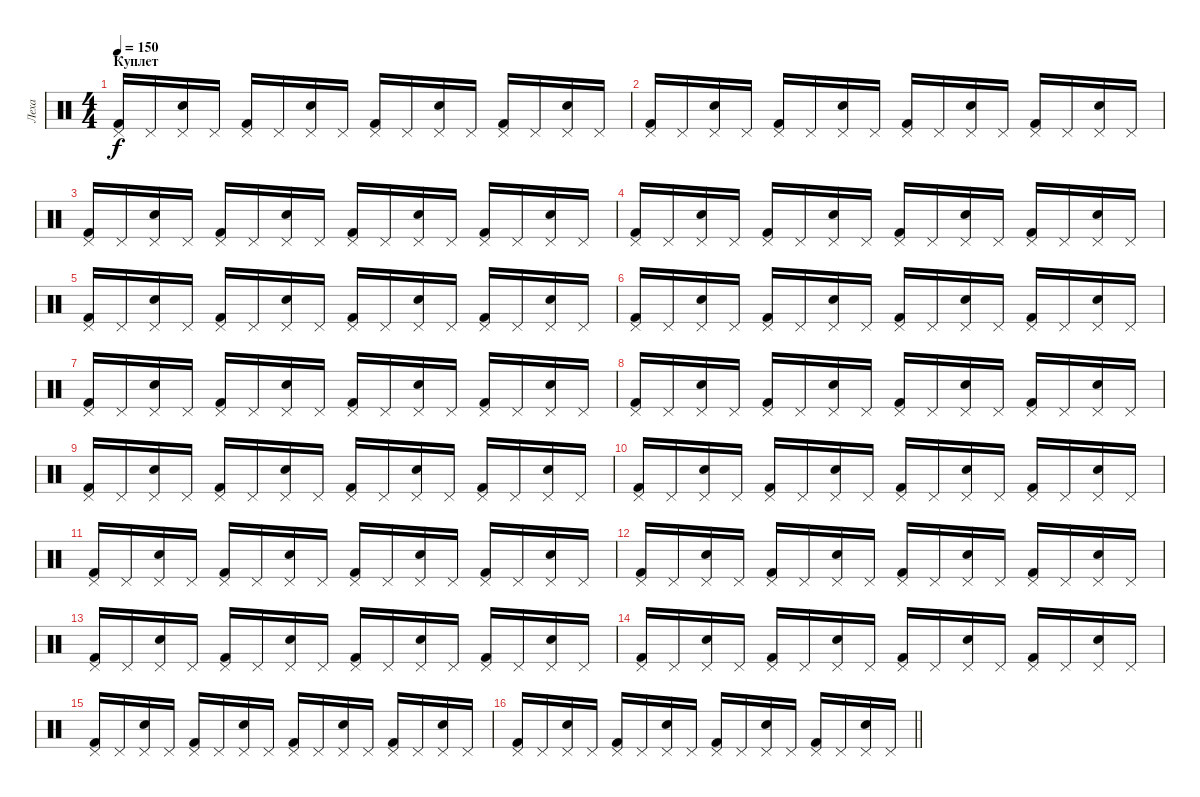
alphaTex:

\track ("Леха" "Леха") {instrument percussion}
\staff {score}
\articulation defaults
\ts (4 4)
\section ("" "Куплет")
\tempo 150
\clef neutral
\ks c
("Pedal Hi-Hat (hit)" "Kick (hit) 2").16{dy f} "Pedal Hi-Hat (hit)".16 ("Pedal Hi-Hat (hit)" "Snare (hit) 2").16 "Pedal Hi-Hat (hit)".16 ("Pedal Hi-Hat (hit)" "Kick (hit) 2").16 "Pedal Hi-Hat (hit)".16 ("Pedal Hi-Hat (hit)" "Snare (hit) 2").16 "Pedal Hi-Hat (hit)".16 ("Pedal Hi-Hat (hit)" "Kick (hit) 2").16 "Pedal Hi-Hat (hit)".16 ("Pedal Hi-Hat (hit)" "Snare (hit) 2").16 "Pedal Hi-Hat (hit)".16 ("Pedal Hi-Hat (hit)" "Kick (hit) 2").16 "Pedal Hi-Hat (hit)".16 ("Pedal Hi-Hat (hit)" "Snare (hit) 2").16 "Pedal Hi-Hat (hit)".16 |
("Pedal Hi-Hat (hit)" "Kick (hit) 2").16 "Pedal Hi-Hat (hit)".16 ("Pedal Hi-Hat (hit)" "Snare (hit) 2").16 "Pedal Hi-Hat (hit)".16 ("Pedal Hi-Hat (hit)" "Kick (hit) 2").16 "Pedal Hi-Hat (hit)".16 ("Pedal Hi-Hat (hit)" "Snare (hit) 2").16 "Pedal Hi-Hat (hit)".16 ("Pedal Hi-Hat (hit)" "Kick (hit) 2").16 "Pedal Hi-Hat (hit)".16 ("Pedal Hi-Hat (hit)" "Snare (hit) 2").16 "Pedal Hi-Hat (hit)".16 ("Pedal Hi-Hat (hit)" "Kick (hit) 2").16 "Pedal Hi-Hat (hit)".16 ("Pedal Hi-Hat (hit)" "Snare (hit) 2").16 "Pedal Hi-Hat (hit)".16 |
("Pedal Hi-Hat (hit)" "Kick (hit) 2").16 "Pedal Hi-Hat (hit)".16 ("Pedal Hi-Hat (hit)" "Snare (hit) 2").16 "Pedal Hi-Hat (hit)".16 ("Pedal Hi-Hat (hit)" "Kick (hit) 2").16 "Pedal Hi-Hat (hit)".16 ("Pedal Hi-Hat (hit)" "Snare (hit) 2").16 "Pedal Hi-Hat (hit)".16 ("Pedal Hi-Hat (hit)" "Kick (hit) 2").16 "Pedal Hi-Hat (hit)".16 ("Pedal Hi-Hat (hit)" "Snare (hit) 2").16 "Pedal Hi-Hat (hit)".16 ("Pedal Hi-Hat (hit)" "Kick (hit) 2").16 "Pedal Hi-Hat (hit)".16 ("Pedal Hi-Hat (hit)" "Snare (hit) 2").16 "Pedal Hi-Hat (hit)".16 |
("Pedal Hi-Hat (hit)" "Kick (hit) 2").16 "Pedal Hi-Hat (hit)".16 ("Pedal Hi-Hat (hit)" "Snare (hit) 2").16 "Pedal Hi-Hat (hit)".16 ("Pedal Hi-Hat (hit)" "Kick (hit) 2").16 "Pedal Hi-Hat (hit)".16 ("Pedal Hi-Hat (hit)" "Snare (hit) 2").16 "Pedal Hi-Hat (hit)".16 ("Pedal Hi-Hat (hit)" "Kick (hit) 2").16 "Pedal Hi-Hat (hit)".16 ("Pedal Hi-Hat (hit)" "Snare (hit) 2").16 "Pedal Hi-Hat (hit)".16 ("Pedal Hi-Hat (hit)" "Kick (hit) 2").16 "Pedal Hi-Hat (hit)".16 ("Pedal Hi-Hat (hit)" "Snare (hit) 2").16 "Pedal Hi-Hat (hit)".16 |
("Pedal Hi-Hat (hit)" "Kick (hit) 2").16 "Pedal Hi-Hat (hit)".16 ("Pedal Hi-Hat (hit)" "Snare (hit) 2").16 "Pedal Hi-Hat (hit)".16 ("Pedal Hi-Hat (hit)" "Kick (hit) 2").16 "Pedal Hi-Hat (hit)".16 ("Pedal Hi-Hat (hit)" "Snare (hit) 2").16 "Pedal Hi-Hat (hit)".16 ("Pedal Hi-Hat (hit)" "Kick (hit) 2").16 "Pedal Hi-Hat (hit)".16 ("Pedal Hi-Hat (hit)" "Snare (hit) 2").16 "Pedal Hi-Hat (hit)".16 ("Pedal Hi-Hat (hit)" "Kick (hit) 2").16 "Pedal Hi-Hat (hit)".16 ("Pedal Hi-Hat (hit)" "Snare (hit) 2").16 "Pedal Hi-Hat (hit)".16 |
("Pedal Hi-Hat (hit)" "Kick (hit) 2").16 "Pedal Hi-Hat (hit)".16 ("Pedal Hi-Hat (hit)" "Snare (hit) 2").16 "Pedal Hi-Hat (hit)".16 ("Pedal Hi-Hat (hit)" "Kick (hit) 2").16 "Pedal Hi-Hat (hit)".16 ("Pedal Hi-Hat (hit)" "Snare (hit) 2").16 "Pedal Hi-Hat (hit)".16 ("Pedal Hi-Hat (hit)" "Kick (hit) 2").16 "Pedal Hi-Hat (hit)".16 ("Pedal Hi-Hat (hit)" "Snare (hit) 2").16 "Pedal Hi-Hat (hit)".16 ("Pedal Hi-Hat (hit)" "Kick (hit) 2").16 "Pedal Hi-Hat (hit)".16 ("Pedal Hi-Hat (hit)" "Snare (hit) 2").16 "Pedal Hi-Hat (hit)".16 |
("Pedal Hi-Hat (hit)" "Kick (hit) 2").16 "Pedal Hi-Hat (hit)".16 ("Pedal Hi-Hat (hit)" "Snare (hit) 2").16 "Pedal Hi-Hat (hit)".16 ("Pedal Hi-Hat (hit)" "Kick (hit) 2").16 "Pedal Hi-Hat (hit)".16 ("Pedal Hi-Hat (hit)" "Snare (hit) 2").16 "Pedal Hi-Hat (hit)".16 ("Pedal Hi-Hat (hit)" "Kick (hit) 2").16 "Pedal Hi-Hat (hit)".16 ("Pedal Hi-Hat (hit)" "Snare (hit) 2").16 "Pedal Hi-Hat (hit)".16 ("Pedal Hi-Hat (hit)" "Kick (hit) 2").16 "Pedal Hi-Hat (hit)".16 ("Pedal Hi-Hat (hit)" "Snare (hit) 2").16 "Pedal Hi-Hat (hit)".16 |
("Pedal Hi-Hat (hit)" "Kick (hit) 2").16 "Pedal Hi-Hat (hit)".16 ("Pedal Hi-Hat (hit)" "Snare (hit) 2").16 "Pedal Hi-Hat (hit)".16 ("Pedal Hi-Hat (hit)" "Kick (hit) 2").16 "Pedal Hi-Hat (hit)".16 ("Pedal Hi-Hat (hit)" "Snare (hit) 2").16 "Pedal Hi-Hat (hit)".16 ("Pedal Hi-Hat (hit)" "Kick (hit) 2").16 "Pedal Hi-Hat (hit)".16 ("Pedal Hi-Hat (hit)" "Snare (hit) 2").16 "Pedal Hi-Hat (hit)".16 ("Pedal Hi-Hat (hit)" "Kick (hit) 2").16 "Pedal Hi-Hat (hit)".16 ("Pedal Hi-Hat (hit)" "Snare (hit) 2").16 "Pedal Hi-Hat (hit)".16 |
("Pedal Hi-Hat (hit)" "Kick (hit) 2").16 "Pedal Hi-Hat (hit)".16 ("Pedal Hi-Hat (hit)" "Snare (hit) 2").16 "Pedal Hi-Hat (hit)".16 ("Pedal Hi-Hat (hit)" "Kick (hit) 2").16 "Pedal Hi-Hat (hit)".16 ("Pedal Hi-Hat (hit)" "Snare (hit) 2").16 "Pedal Hi-Hat (hit)".16 ("Pedal Hi-Hat (hit)" "Kick (hit) 2").16 "Pedal Hi-Hat (hit)".16 ("Pedal Hi-Hat (hit)" "Snare (hit) 2").16 "Pedal Hi-Hat (hit)".16 ("Pedal Hi-Hat (hit)" "Kick (hit) 2").16 "Pedal Hi-Hat (hit)".16 ("Pedal Hi-Hat (hit)" "Snare (hit) 2").16 "Pedal Hi-Hat (hit)".16 |
("Pedal Hi-Hat (hit)" "Kick (hit) 2").16 "Pedal Hi-Hat (hit)".16 ("Pedal Hi-Hat (hit)" "Snare (hit) 2").16 "Pedal Hi-Hat (hit)".16 ("Pedal Hi-Hat (hit)" "Kick (hit) 2").16 "Pedal Hi-Hat (hit)".16 ("Pedal Hi-Hat (hit)" "Snare (hit) 2").16 "Pedal Hi-Hat (hit)".16 ("Pedal Hi-Hat (hit)" "Kick (hit) 2").16 "Pedal Hi-Hat (hit)".16 ("Pedal Hi-Hat (hit)" "Snare (hit) 2").16 "Pedal Hi-Hat (hit)".16 ("Pedal Hi-Hat (hit)" "Kick (hit) 2").16 "Pedal Hi-Hat (hit)".16 ("Pedal Hi-Hat (hit)" "Snare (hit) 2").16 "Pedal Hi-Hat (hit)".16 |
("Pedal Hi-Hat (hit)" "Kick (hit) 2").16 "Pedal Hi-Hat (hit)".16 ("Pedal Hi-Hat (hit)" "Snare (hit) 2").16 "Pedal Hi-Hat (hit)".16 ("Pedal Hi-Hat (hit)" "Kick (hit) 2").16 "Pedal Hi-Hat (hit)".16 ("Pedal Hi-Hat (hit)" "Snare (hit) 2").16 "Pedal Hi-Hat (hit)".16 ("Pedal Hi-Hat (hit)" "Kick (hit) 2").16 "Pedal Hi-Hat (hit)".16 ("Pedal Hi-Hat (hit)" "Snare (hit) 2").16 "Pedal Hi-Hat (hit)".16 ("Pedal Hi-Hat (hit)" "Kick (hit) 2").16 "Pedal Hi-Hat (hit)".16 ("Pedal Hi-Hat (hit)" "Snare (hit) 2").16 "Pedal Hi-Hat (hit)".16 |
("Pedal Hi-Hat (hit)" "Kick (hit) 2").16 "Pedal Hi-Hat (hit)".16 ("Pedal Hi-Hat (hit)" "Snare (hit) 2").16 "Pedal Hi-Hat (hit)".16 ("Pedal Hi-Hat (hit)" "Kick (hit) 2").16 "Pedal Hi-Hat (hit)".16 ("Pedal Hi-Hat (hit)" "Snare (hit) 2").16 "Pedal Hi-Hat (hit)".16 ("Pedal Hi-Hat (hit)" "Kick (hit) 2").16 "Pedal Hi-Hat (hit)".16 ("Pedal Hi-Hat (hit)" "Snare (hit) 2").16 "Pedal Hi-Hat (hit)".16 ("Pedal Hi-Hat (hit)" "Kick (hit) 2").16 "Pedal Hi-Hat (hit)".16 ("Pedal Hi-Hat (hit)" "Snare (hit) 2").16 "Pedal Hi-Hat (hit)".16 |
("Pedal Hi-Hat (hit)" "Kick (hit) 2").16 "Pedal Hi-Hat (hit)".16 ("Pedal Hi-Hat (hit)" "Snare (hit) 2").16 "Pedal Hi-Hat (hit)".16 ("Pedal Hi-Hat (hit)" "Kick (hit) 2").16 "Pedal Hi-Hat (hit)".16 ("Pedal Hi-Hat (hit)" "Snare (hit) 2").16 "Pedal Hi-Hat (hit)".16 ("Pedal Hi-Hat (hit)" "Kick (hit) 2").16 "Pedal Hi-Hat (hit)".16 ("Pedal Hi-Hat (hit)" "Snare (hit) 2").16 "Pedal Hi-Hat (hit)".16 ("Pedal Hi-Hat (hit)" "Kick (hit) 2").16 "Pedal Hi-Hat (hit)".16 ("Pedal Hi-Hat (hit)" "Snare (hit) 2").16 "Pedal Hi-Hat (hit)".16 |
("Pedal Hi-Hat (hit)" "Kick (hit) 2").16 "Pedal Hi-Hat (hit)".16 ("Pedal Hi-Hat (hit)" "Snare (hit) 2").16 "Pedal Hi-Hat (hit)".16 ("Pedal Hi-Hat (hit)" "Kick (hit) 2").16 "Pedal Hi-Hat (hit)".16 ("Pedal Hi-Hat (hit)" "Snare (hit) 2").16 "Pedal Hi-Hat (hit)".16 ("Pedal Hi-Hat (hit)" "Kick (hit) 2").16 "Pedal Hi-Hat (hit)".16 ("Pedal Hi-Hat (hit)" "Snare (hit) 2").16 "Pedal Hi-Hat (hit)".16 ("Pedal Hi-Hat (hit)" "Kick (hit) 2").16 "Pedal Hi-Hat (hit)".16 ("Pedal Hi-Hat (hit)" "Snare (hit) 2").16 "Pedal Hi-Hat (hit)".16 |
("Pedal Hi-Hat (hit)" "Kick (hit) 2").16 "Pedal Hi-Hat (hit)".16 ("Pedal Hi-Hat (hit)" "Snare (hit) 2").16 "Pedal Hi-Hat (hit)".16 ("Pedal Hi-Hat (hit)" "Kick (hit) 2").16 "Pedal Hi-Hat (hit)".16 ("Pedal Hi-Hat (hit)" "Snare (hit) 2").16 "Pedal Hi-Hat (hit)".16 ("Pedal Hi-Hat (hit)" "Kick (hit) 2").16 "Pedal Hi-Hat (hit)".16 ("Pedal Hi-Hat (hit)" "Snare (hit) 2").16 "Pedal Hi-Hat (hit)".16 ("Pedal Hi-Hat (hit)" "Kick (hit) 2").16 "Pedal Hi-Hat (hit)".16 ("Pedal Hi-Hat (hit)" "Snare (hit) 2").16 "Pedal Hi-Hat (hit)".16 |
\barLineRight lightlight
("Pedal Hi-Hat (hit)" "Kick (hit) 2").16 "Pedal Hi-Hat (hit)".16 ("Pedal Hi-Hat (hit)" "Snare (hit) 2").16 "Pedal Hi-Hat (hit)".16 ("Pedal Hi-Hat (hit)" "Kick (hit) 2").16 "Pedal Hi-Hat (hit)".16 ("Pedal Hi-Hat (hit)" "Snare (hit) 2").16 "Pedal Hi-Hat (hit)".16 ("Pedal Hi-Hat (hit)" "Kick (hit) 2").16 "Pedal Hi-Hat (hit)".16 ("Pedal Hi-Hat (hit)" "Snare (hit) 2").16 "Pedal Hi-Hat (hit)".16 ("Pedal Hi-Hat (hit)" "Kick (hit) 2").16 "Pedal Hi-Hat (hit)".16 ("Pedal Hi-Hat (hit)" "Snare (hit) 2").16 "Pedal Hi-Hat (hit)".16
